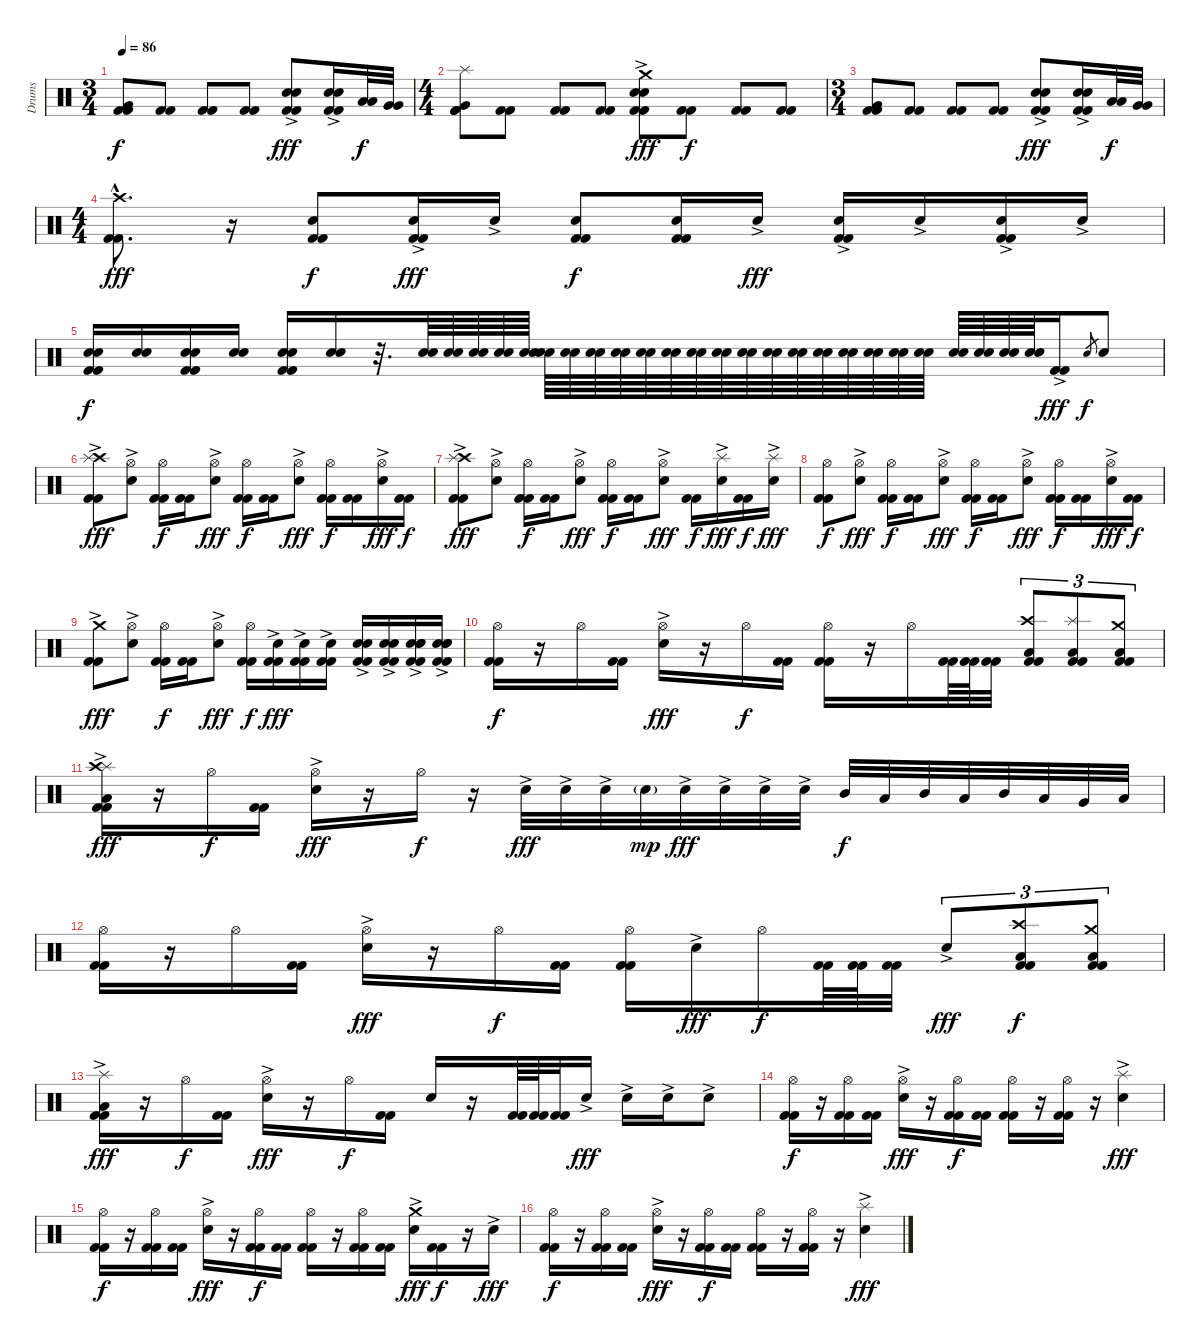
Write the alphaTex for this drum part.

\track ("Drums" "Drums") {instrument percussion}
\staff {score}
\articulation defaults
\ts (3 4)
\tempo 86
\clef neutral
\ks c
("Very Low Tom (hit)" "Kick (hit) 2" "Kick (hit) 2").8{dy f} ("Kick (hit) 2" "Kick (hit) 2").8 ("Kick (hit) 2" "Kick (hit) 2").8 ("Kick (hit) 2" "Kick (hit) 2").8 ("Electric Snare (hit)"{ac} "Electric Snare (hit)"{ac} "Kick (hit) 2" "Kick (hit) 2").8{dy fff} ("Electric Snare (hit)"{ac} "Electric Snare (hit)"{ac} "Kick (hit) 2" "Kick (hit) 2").16 ("Low Tom (hit)" "Low Tom (hit)").32{dy f} ("Very Low Tom (hit)" "Very Low Tom (hit)").32 |
\ts (4 4)
("Splash (hit)" "Very Low Tom (hit)" "Kick (hit) 2" "Kick (hit) 2").8 ("Kick (hit) 2" "Kick (hit) 2").8 ("Kick (hit) 2" "Kick (hit) 2").8 ("Kick (hit) 2" "Kick (hit) 2").8 ("Crash medium (hit)" "Electric Snare (hit)"{ac} "Electric Snare (hit)"{ac} "Kick (hit) 2" "Kick (hit) 2").8{dy fff} ("Kick (hit) 2" "Kick (hit) 2").8{dy f} ("Kick (hit) 2" "Kick (hit) 2").8 ("Kick (hit) 2" "Kick (hit) 2").8 |
\ts (3 4)
("Very Low Tom (hit)" "Kick (hit) 2" "Kick (hit) 2").8 ("Kick (hit) 2" "Kick (hit) 2").8 ("Kick (hit) 2" "Kick (hit) 2").8 ("Kick (hit) 2" "Kick (hit) 2").8 ("Electric Snare (hit)"{ac} "Electric Snare (hit)"{ac} "Kick (hit) 2" "Kick (hit) 2").8{dy fff} ("Electric Snare (hit)"{ac} "Electric Snare (hit)"{ac} "Kick (hit) 2" "Kick (hit) 2").16 ("Low Tom (hit)" "Low Tom (hit)").32{dy f} ("Very Low Tom (hit)" "Very Low Tom (hit)").32 |
\ts (4 4)
("Crash high (hit)"{hac} "Kick (hit) 2"{hac} "Kick (hit) 2"{hac}).8{d dy fff} r.16 ("Electric Snare (hit)" "Kick (hit) 2" "Kick (hit) 2").8{dy f} ("Electric Snare (hit)"{ac} "Kick (hit) 2" "Kick (hit) 2").16{dy fff} "Electric Snare (hit)"{ac}.16 ("Electric Snare (hit)" "Kick (hit) 2" "Kick (hit) 2").8{dy f} ("Electric Snare (hit)" "Kick (hit) 2" "Kick (hit) 2").16 "Electric Snare (hit)"{ac}.16{dy fff} ("Electric Snare (hit)"{ac} "Kick (hit) 2" "Kick (hit) 2").16 "Electric Snare (hit)"{ac}.16 ("Electric Snare (hit)"{ac} "Kick (hit) 2" "Kick (hit) 2").16 "Electric Snare (hit)"{ac}.16 |
("Electric Snare (hit)" "Electric Snare (hit)" "Kick (hit) 2" "Kick (hit) 2").16{dy f} ("Electric Snare (hit)" "Electric Snare (hit)").16 ("Electric Snare (hit)" "Electric Snare (hit)" "Kick (hit) 2" "Kick (hit) 2").16 ("Electric Snare (hit)" "Electric Snare (hit)").16 ("Electric Snare (hit)" "Electric Snare (hit)" "Kick (hit) 2" "Kick (hit) 2").16 ("Electric Snare (hit)" "Electric Snare (hit)").16 r.32{d} ("Electric Snare (hit)" "Electric Snare (hit)").64 ("Electric Snare (hit)" "Electric Snare (hit)").64 ("Electric Snare (hit)" "Electric Snare (hit)").64 ("Electric Snare (hit)" "Electric Snare (hit)").64 ("Electric Snare (hit)" "Electric Snare (hit)").64 ("Electric Snare (hit)" "Electric Snare (hit)").64 ("Electric Snare (hit)" "Electric Snare (hit)").64 ("Electric Snare (hit)" "Electric Snare (hit)").64 ("Electric Snare (hit)" "Electric Snare (hit)").64 ("Electric Snare (hit)" "Electric Snare (hit)").64 ("Electric Snare (hit)" "Electric Snare (hit)").64 ("Electric Snare (hit)" "Electric Snare (hit)").64 ("Electric Snare (hit)" "Electric Snare (hit)").64 ("Electric Snare (hit)" "Electric Snare (hit)").64 ("Electric Snare (hit)" "Electric Snare (hit)").64 ("Electric Snare (hit)" "Electric Snare (hit)").64 ("Electric Snare (hit)" "Electric Snare (hit)").64 ("Electric Snare (hit)" "Electric Snare (hit)").64 ("Electric Snare (hit)" "Electric Snare (hit)").64 ("Electric Snare (hit)" "Electric Snare (hit)").64 ("Electric Snare (hit)" "Electric Snare (hit)").64 ("Electric Snare (hit)" "Electric Snare (hit)").64 ("Electric Snare (hit)" "Electric Snare (hit)").64 ("Electric Snare (hit)" "Electric Snare (hit)").64 ("Electric Snare (hit)" "Electric Snare (hit)").64 ("Kick (hit) 2"{ac} "Kick (hit) 2").16{dy fff} "Electric Snare (hit)".8{gr dy f} "Electric Snare (hit)".8 |
("Crash high (hit)"{ac} "Splash (hit)" "Kick (hit) 2" "Kick (hit) 2").8{dy fff} ("Hi-Hat (open)" "Electric Snare (hit)"{ac}).8 ("Hi-Hat (open)" "Kick (hit) 2" "Kick (hit) 2").16{dy f} ("Kick (hit) 2" "Kick (hit) 2").16 ("Hi-Hat (open)" "Electric Snare (hit)"{ac}).8{dy fff} ("Hi-Hat (open)" "Kick (hit) 2" "Kick (hit) 2").16{dy f} ("Kick (hit) 2" "Kick (hit) 2").16 ("Hi-Hat (open)" "Electric Snare (hit)"{ac}).8{dy fff} ("Hi-Hat (open)" "Kick (hit) 2" "Kick (hit) 2").16{dy f} ("Kick (hit) 2" "Kick (hit) 2").16 ("Hi-Hat (open)" "Electric Snare (hit)"{ac}).16{dy fff} ("Kick (hit) 2" "Kick (hit) 2").16{dy f} |
("Crash high (hit)"{ac} "Splash (hit)" "Kick (hit) 2" "Kick (hit) 2").8{dy fff} ("Hi-Hat (open)" "Electric Snare (hit)"{ac}).8 ("Hi-Hat (open)" "Kick (hit) 2" "Kick (hit) 2").16{dy f} ("Kick (hit) 2" "Kick (hit) 2").16 ("Hi-Hat (open)" "Electric Snare (hit)"{ac}).8{dy fff} ("Hi-Hat (open)" "Kick (hit) 2" "Kick (hit) 2").16{dy f} ("Kick (hit) 2" "Kick (hit) 2").16 ("Hi-Hat (open)" "Electric Snare (hit)"{ac}).8{dy fff} ("Kick (hit) 2" "Kick (hit) 2").16{dy f} ("Splash (hit)" "Electric Snare (hit)"{ac}).16{dy fff} ("Kick (hit) 2" "Kick (hit) 2").16{dy f} ("Splash (hit)" "Electric Snare (hit)"{ac}).16{dy fff} |
("Hi-Hat (open)" "Kick (hit) 2" "Kick (hit) 2").8{dy f} ("Hi-Hat (open)" "Electric Snare (hit)"{ac}).8{dy fff} ("Hi-Hat (open)" "Kick (hit) 2" "Kick (hit) 2").16{dy f} ("Kick (hit) 2" "Kick (hit) 2").16 ("Hi-Hat (open)" "Electric Snare (hit)"{ac}).8{dy fff} ("Hi-Hat (open)" "Kick (hit) 2" "Kick (hit) 2").16{dy f} ("Kick (hit) 2" "Kick (hit) 2").16 ("Hi-Hat (open)" "Electric Snare (hit)"{ac}).8{dy fff} ("Hi-Hat (open)" "Kick (hit) 2" "Kick (hit) 2").16{dy f} ("Kick (hit) 2" "Kick (hit) 2").16 ("Hi-Hat (open)" "Electric Snare (hit)"{ac}).16{dy fff} ("Kick (hit) 2" "Kick (hit) 2").16{dy f} |
("Crash medium (hit)"{ac} "Kick (hit) 2" "Kick (hit) 2").8{dy fff} ("Hi-Hat (open)" "Electric Snare (hit)"{ac}).8 ("Hi-Hat (open)" "Kick (hit) 2" "Kick (hit) 2").16{dy f} ("Kick (hit) 2" "Kick (hit) 2").16 ("Hi-Hat (open)" "Electric Snare (hit)"{ac}).8{dy fff} ("Hi-Hat (open)" "Kick (hit) 2" "Kick (hit) 2").16{dy f} ("Electric Snare (hit)"{ac} "Kick (hit) 2" "Kick (hit) 2").16{dy fff} ("Electric Snare (hit)"{ac} "Kick (hit) 2" "Kick (hit) 2").16 ("Electric Snare (hit)"{ac} "Kick (hit) 2" "Kick (hit) 2").16 ("Electric Snare (hit)"{ac} "Electric Snare (hit)" "Kick (hit) 2" "Kick (hit) 2").16 ("Electric Snare (hit)"{ac} "Electric Snare (hit)" "Kick (hit) 2" "Kick (hit) 2").16 ("Electric Snare (hit)"{ac} "Electric Snare (hit)" "Electric Snare (hit)" "Kick (hit) 2"{ac} "Kick (hit) 2").16 ("Electric Snare (hit)"{ac} "Electric Snare (hit)"{ac} "Electric Snare (hit)" "Kick (hit) 2"{ac} "Kick (hit) 2").16 |
("Hi-Hat (open)" "Kick (hit) 2" "Kick (hit) 2").16{dy f} r.16 "Hi-Hat (open)".16 ("Kick (hit) 2" "Kick (hit) 2").16 ("Hi-Hat (open)" "Electric Snare (hit)"{ac}).16{dy fff} r.16 "Hi-Hat (open)".16{dy f} ("Kick (hit) 2" "Kick (hit) 2").16 ("Hi-Hat (open)" "Kick (hit) 2" "Kick (hit) 2").16 r.16 "Hi-Hat (open)".16 ("Kick (hit) 2" "Kick (hit) 2").64 ("Kick (hit) 2" "Kick (hit) 2").64 ("Kick (hit) 2" "Kick (hit) 2").32 ("Crash high (hit)" "Low Floor Tom (hit)" "Kick (hit) 2" "Kick (hit) 2").8{tu (3 2)} ("Splash (hit)" "Low Floor Tom (hit)" "Kick (hit) 2" "Kick (hit) 2").8{tu (3 2)} ("Crash medium (hit)" "Low Floor Tom (hit)" "Kick (hit) 2" "Kick (hit) 2").8{tu (3 2)} |
("Splash (hit)" "Crash high (hit)" "Low Floor Tom (hit)" "Kick (hit) 2" "Kick (hit) 2"{ac}).16{dy fff} r.16 "Hi-Hat (open)".16{dy f} ("Kick (hit) 2" "Kick (hit) 2").16 ("Hi-Hat (open)" "Electric Snare (hit)"{ac}).16{dy fff} r.16 "Hi-Hat (open)".16{dy f} r.16 "Electric Snare (hit)"{ac}.32{dy fff} "Electric Snare (hit)"{ac}.32 "Electric Snare (hit)"{ac}.32 "Electric Snare (hit)"{g}.32{dy mp} "Electric Snare (hit)"{ac}.32{dy fff} "Electric Snare (hit)"{ac}.32 "Electric Snare (hit)"{ac}.32 "Electric Snare (hit)"{ac}.32 "Mid Tom (hit)".32{dy f} "Low Tom (hit)".32 "Mid Tom (hit)".32 "Low Tom (hit)".32 "Mid Tom (hit)".32 "Low Tom (hit)".32 "Very Low Tom (hit)".32 "Low Tom (hit)".32 |
("Hi-Hat (open)" "Kick (hit) 2" "Kick (hit) 2").16 r.16 "Hi-Hat (open)".16 ("Kick (hit) 2" "Kick (hit) 2").16 ("Hi-Hat (open)" "Electric Snare (hit)"{ac}).16{dy fff} r.16 "Hi-Hat (open)".16{dy f} ("Kick (hit) 2" "Kick (hit) 2").16 ("Hi-Hat (open)" "Kick (hit) 2" "Kick (hit) 2").16 "Electric Snare (hit)"{ac}.16{dy fff} "Hi-Hat (open)".16{dy f} ("Kick (hit) 2" "Kick (hit) 2").64 ("Kick (hit) 2" "Kick (hit) 2").64 ("Kick (hit) 2" "Kick (hit) 2").32 "Electric Snare (hit)"{ac}.8{tu (3 2) dy fff} ("Crash high (hit)" "Low Floor Tom (hit)" "Kick (hit) 2" "Kick (hit) 2").8{tu (3 2) dy f} ("Crash medium (hit)" "Low Floor Tom (hit)" "Kick (hit) 2" "Kick (hit) 2").8{tu (3 2)} |
("Splash (hit)"{ac} "Low Floor Tom (hit)" "Kick (hit) 2" "Kick (hit) 2").16{dy fff} r.16 "Hi-Hat (open)".16{dy f} ("Kick (hit) 2" "Kick (hit) 2").16 ("Hi-Hat (open)" "Electric Snare (hit)"{ac}).16{dy fff} r.16 "Hi-Hat (open)".16{dy f} ("Kick (hit) 2" "Kick (hit) 2").16 "Electric Snare (hit)".16 r.16 ("Kick (hit) 2" "Kick (hit) 2").64 ("Kick (hit) 2" "Kick (hit) 2").64 ("Kick (hit) 2" "Kick (hit) 2").32 "Electric Snare (hit)"{ac}.16{dy fff} "Electric Snare (hit)"{ac}.16 "Electric Snare (hit)"{ac}.16 "Electric Snare (hit)"{ac}.8 |
("Hi-Hat (open)" "Kick (hit) 2" "Kick (hit) 2").16{dy f} r.16 ("Hi-Hat (open)" "Kick (hit) 2" "Kick (hit) 2").16 ("Kick (hit) 2" "Kick (hit) 2").16 ("Hi-Hat (open)" "Electric Snare (hit)"{ac}).16{dy fff} r.16 ("Hi-Hat (open)" "Kick (hit) 2" "Kick (hit) 2").16{dy f} ("Kick (hit) 2" "Kick (hit) 2").16 ("Hi-Hat (open)" "Kick (hit) 2" "Kick (hit) 2").16 r.16 ("Hi-Hat (open)" "Kick (hit) 2" "Kick (hit) 2").16 r.16 ("Splash (hit)"{ac} "Electric Snare (hit)"{ac}).4{dy fff} |
("Hi-Hat (open)" "Kick (hit) 2" "Kick (hit) 2").16{dy f} r.16 ("Hi-Hat (open)" "Kick (hit) 2" "Kick (hit) 2").16 ("Kick (hit) 2" "Kick (hit) 2").16 ("Hi-Hat (open)" "Electric Snare (hit)"{ac}).16{dy fff} r.16 ("Hi-Hat (open)" "Kick (hit) 2" "Kick (hit) 2").16{dy f} ("Kick (hit) 2" "Kick (hit) 2").16 ("Hi-Hat (open)" "Kick (hit) 2" "Kick (hit) 2").16 r.16 ("Hi-Hat (open)" "Kick (hit) 2" "Kick (hit) 2").16 ("Kick (hit) 2" "Kick (hit) 2").16 ("Crash medium (hit)"{ac} "Electric Snare (hit)"{ac}).16{dy fff} ("Kick (hit) 2" "Kick (hit) 2").16{dy f} r.16 "Electric Snare (hit)"{ac}.16{dy fff} |
("Hi-Hat (open)" "Kick (hit) 2" "Kick (hit) 2").16{dy f} r.16 ("Hi-Hat (open)" "Kick (hit) 2" "Kick (hit) 2").16 ("Kick (hit) 2" "Kick (hit) 2").16 ("Hi-Hat (open)" "Electric Snare (hit)"{ac}).16{dy fff} r.16 ("Hi-Hat (open)" "Kick (hit) 2" "Kick (hit) 2").16{dy f} ("Kick (hit) 2" "Kick (hit) 2").16 ("Hi-Hat (open)" "Kick (hit) 2" "Kick (hit) 2").16 r.16 ("Hi-Hat (open)" "Kick (hit) 2" "Kick (hit) 2").16 r.16 ("Splash (hit)"{ac} "Electric Snare (hit)"{ac}).4{dy fff}
